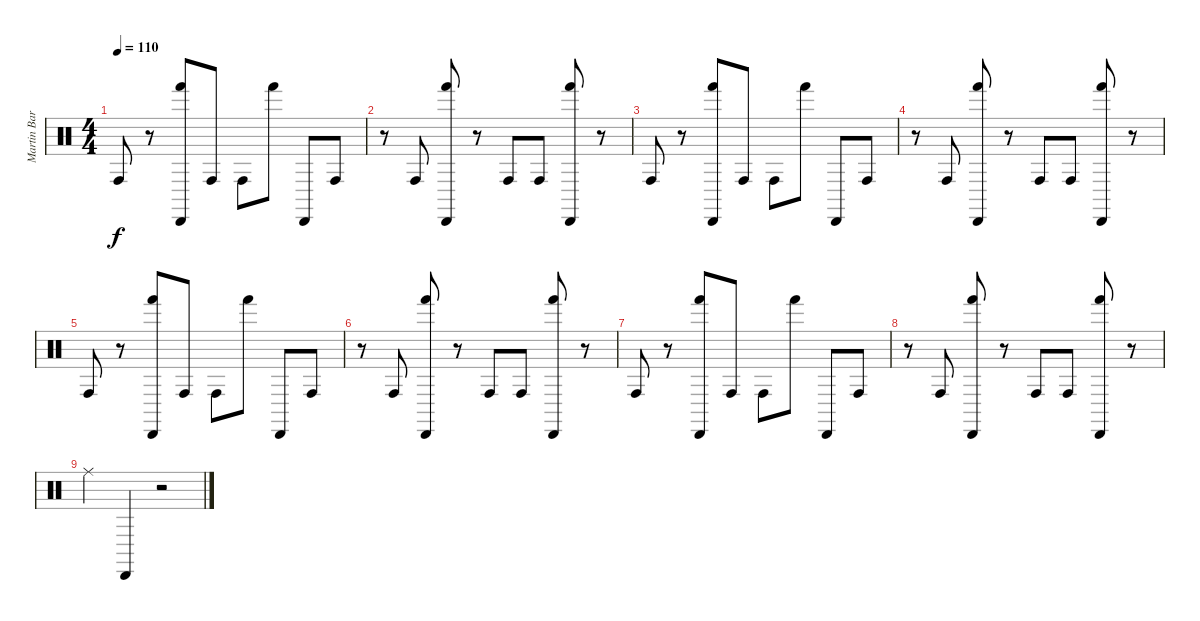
\track ("Martin Barret" "Martin Bar") {instrument percussion}
\staff {score}
\articulation defaults
\ts (4 4)
\tempo 110
\clef neutral
\ks c "Conga high (hit)".8{dy f}
r.8 ("Cabasa (hit)" "Hand (hit)").8 "Conga high (hit)".8 "Conga high (hit)".8 "Hand (hit)".8 "Cabasa (hit)".8 "Conga high (hit)".8 |
r.8 "Conga high (hit)".8 ("Cabasa (hit)" "Hand (hit)").8 r.8 "Conga high (hit)".8 "Conga high (hit)".8 ("Cabasa (hit)" "Hand (hit)").8 r.8 |
"Conga high (hit)".8 r.8 ("Cabasa (hit)" "Hand (hit)").8 "Conga high (hit)".8 "Conga high (hit)".8 "Hand (hit)".8 "Cabasa (hit)".8 "Conga high (hit)".8 |
r.8 "Conga high (hit)".8 ("Cabasa (hit)" "Hand (hit)").8 r.8 "Conga high (hit)".8 "Conga high (hit)".8 ("Cabasa (hit)" "Hand (hit)").8 r.8 |
"Conga high (hit)".8 r.8 ("Cabasa (hit)" "Hand (hit)").8 "Conga high (hit)".8 "Conga high (hit)".8 "Hand (hit)".8 "Cabasa (hit)".8 "Conga high (hit)".8 |
r.8 "Conga high (hit)".8 ("Cabasa (hit)" "Hand (hit)").8 r.8 "Conga high (hit)".8 "Conga high (hit)".8 ("Cabasa (hit)" "Hand (hit)").8 r.8 |
"Conga high (hit)".8 r.8 ("Cabasa (hit)" "Hand (hit)").8 "Conga high (hit)".8 "Conga high (hit)".8 "Hand (hit)".8 "Cabasa (hit)".8 "Conga high (hit)".8 |
r.8 "Conga high (hit)".8 ("Cabasa (hit)" "Hand (hit)").8 r.8 "Conga high (hit)".8 "Conga high (hit)".8 ("Cabasa (hit)" "Hand (hit)").8 r.8 |
"Ride (middle)".4 "Cabasa (hit)".4 r.2
